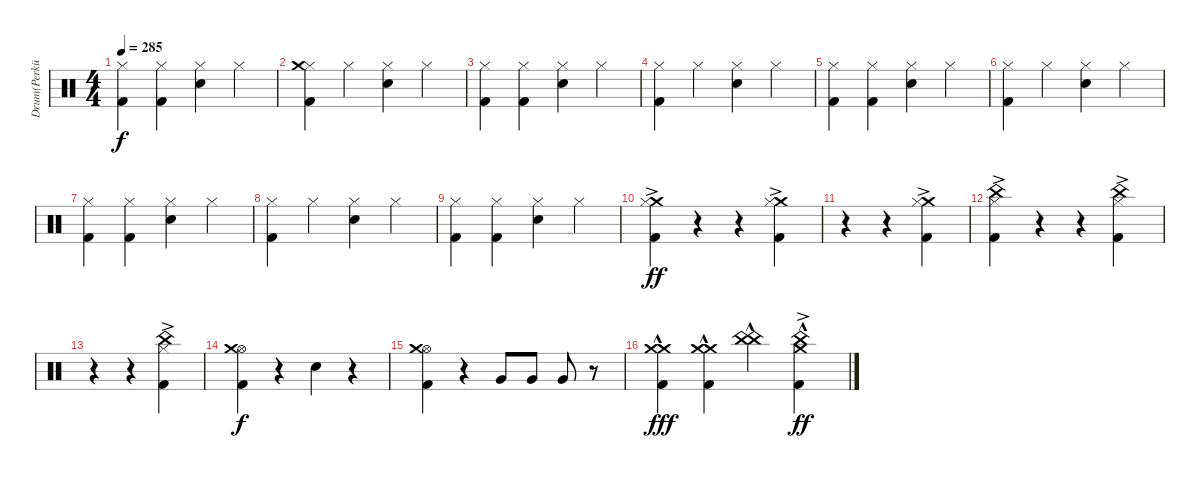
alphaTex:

\track ("Drum(Perküsyon)" "Drum(Perkü") {instrument percussion}
\staff {score}
\articulation defaults
\ts (4 4)
\tempo 285
\clef neutral
\ks c
("Hi-Hat (closed)" "Kick (hit) 2").4{dy f} ("Hi-Hat (closed)" "Kick (hit) 2").4 ("Hi-Hat (closed)" "Electric Snare (hit)").4 "Hi-Hat (closed)".4 |
("Hi-Hat (closed)" "Kick (hit) 2" "Crash medium (hit)").4 "Hi-Hat (closed)".4 ("Hi-Hat (closed)" "Electric Snare (hit)").4 "Hi-Hat (closed)".4 |
("Hi-Hat (closed)" "Kick (hit) 2").4 ("Hi-Hat (closed)" "Kick (hit) 2").4 ("Hi-Hat (closed)" "Electric Snare (hit)").4 "Hi-Hat (closed)".4 |
("Hi-Hat (closed)" "Kick (hit) 2").4 "Hi-Hat (closed)".4 ("Hi-Hat (closed)" "Electric Snare (hit)").4 "Hi-Hat (closed)".4 |
("Hi-Hat (closed)" "Kick (hit) 2").4 ("Hi-Hat (closed)" "Kick (hit) 2").4 ("Hi-Hat (closed)" "Electric Snare (hit)").4 "Hi-Hat (closed)".4 |
("Hi-Hat (closed)" "Kick (hit) 2").4 "Hi-Hat (closed)".4 ("Hi-Hat (closed)" "Electric Snare (hit)").4 "Hi-Hat (closed)".4 |
("Hi-Hat (closed)" "Kick (hit) 2").4 ("Hi-Hat (closed)" "Kick (hit) 2").4 ("Hi-Hat (closed)" "Electric Snare (hit)").4 "Hi-Hat (closed)".4 |
("Hi-Hat (closed)" "Kick (hit) 2").4 "Hi-Hat (closed)".4 ("Hi-Hat (closed)" "Electric Snare (hit)").4 "Hi-Hat (closed)".4 |
("Hi-Hat (closed)" "Kick (hit) 2").4 ("Hi-Hat (closed)" "Kick (hit) 2").4 ("Hi-Hat (closed)" "Electric Snare (hit)").4 "Hi-Hat (closed)".4 |
("Crash medium (hit)"{ac} "Hi-Hat (closed)"{ac} "Kick (hit) 2"{ac}).4{dy ff} r.4 r.4 ("Crash medium (hit)"{ac} "Hi-Hat (closed)"{ac} "Kick (hit) 2"{ac}).4 |
r.4 r.4 ("Crash medium (hit)"{ac} "Hi-Hat (closed)"{ac} "Kick (hit) 2"{ac}).4 |
("China (hit)"{ac} "Hi-Hat (closed)"{ac} "Kick (hit) 2"{ac}).4 r.4 r.4 ("China (hit)"{ac} "Hi-Hat (closed)"{ac} "Kick (hit) 2"{ac}).4 |
r.4 r.4 ("China (hit)"{ac} "Hi-Hat (closed)"{ac} "Kick (hit) 2"{ac}).4 |
("Hi-Hat (open)" "Kick (hit) 2" "Crash medium (hit)").4{dy f} r.4 "Electric Snare (hit)".4 r.4 |
("Hi-Hat (open)" "Kick (hit) 2" "Crash medium (hit)").4 r.4 "Very Low Tom (hit)".8 "Very Low Tom (hit)".8 "Very Low Tom (hit)".8 r.8 |
("Crash medium (hit)"{hac} "Crash medium (hit)"{hac} "Kick (hit) 2").4{dy fff} ("Crash medium (hit)"{hac} "Crash medium (hit)"{hac} "Kick (hit) 2").4 ("China (hit)"{hac} "China (hit)"{hac}).4 ("Crash medium (hit)"{hac} "China (hit)"{hac} "Kick (hit) 2"{ac}).4{dy ff}
